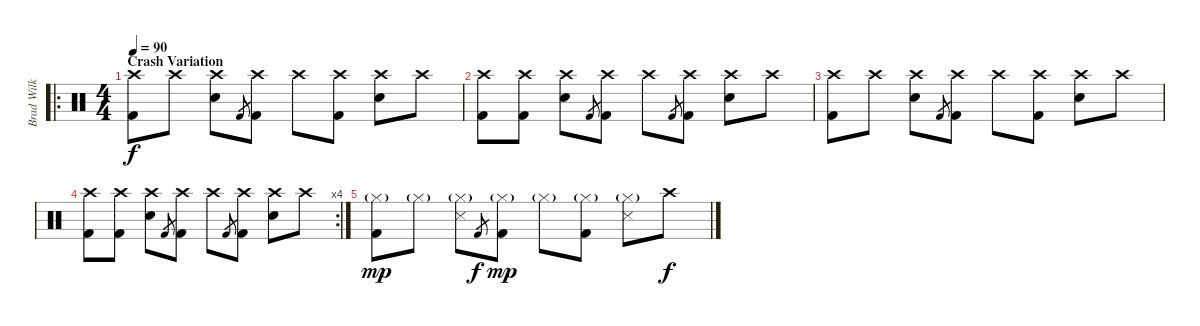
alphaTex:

\track ("Brad Wilk - Drums" "Brad Wilk ") {instrument percussion}
\staff {score}
\articulation defaults
\ro
\ts (4 4)
\section ("" "Crash Variation")
\tempo 90
\clef neutral
\ks c
("Crash high (hit)" "Kick (hit) 2").8{dy f} "Crash high (hit)".8 ("Crash high (hit)" "Electric Snare (hit)").8 "Kick (hit) 2".8{gr} ("Crash high (hit)" "Kick (hit) 2").8 "Crash high (hit)".8 ("Crash high (hit)" "Kick (hit) 2").8 ("Crash high (hit)" "Electric Snare (hit)").8 "Crash high (hit)".8 |
("Crash high (hit)" "Kick (hit) 2").8 ("Crash high (hit)" "Kick (hit) 2").8 ("Crash high (hit)" "Electric Snare (hit)").8 "Kick (hit) 2".8{gr} ("Crash high (hit)" "Kick (hit) 2").8 "Crash high (hit)".8 "Kick (hit) 2".8{gr} ("Crash high (hit)" "Kick (hit) 2").8 ("Crash high (hit)" "Electric Snare (hit)").8 "Crash high (hit)".8 |
("Crash high (hit)" "Kick (hit) 2").8 "Crash high (hit)".8 ("Crash high (hit)" "Electric Snare (hit)").8 "Kick (hit) 2".8{gr} ("Crash high (hit)" "Kick (hit) 2").8 "Crash high (hit)".8 ("Crash high (hit)" "Kick (hit) 2").8 ("Crash high (hit)" "Electric Snare (hit)").8 "Crash high (hit)".8 |
\rc 4
("Crash high (hit)" "Kick (hit) 2").8 ("Crash high (hit)" "Kick (hit) 2").8 ("Crash high (hit)" "Electric Snare (hit)").8 "Kick (hit) 2".8{gr} ("Crash high (hit)" "Kick (hit) 2").8 "Crash high (hit)".8 "Kick (hit) 2".8{gr} ("Crash high (hit)" "Kick (hit) 2").8 ("Crash high (hit)" "Electric Snare (hit)").8 "Crash high (hit)".8 |
("Hi-Hat (closed)"{g} "Kick (hit) 2").8{dy mp} "Hi-Hat (closed)"{g}.8 ("Hi-Hat (closed)"{g} "Snare (side stick) 3").8 "Kick (hit) 2".8{gr dy f} ("Hi-Hat (closed)"{g} "Kick (hit) 2").8{dy mp} "Hi-Hat (closed)"{g}.8 ("Hi-Hat (closed)"{g} "Kick (hit) 2").8 ("Hi-Hat (closed)"{g} "Snare (side stick) 3").8 "Crash high (hit)".8{dy f}
